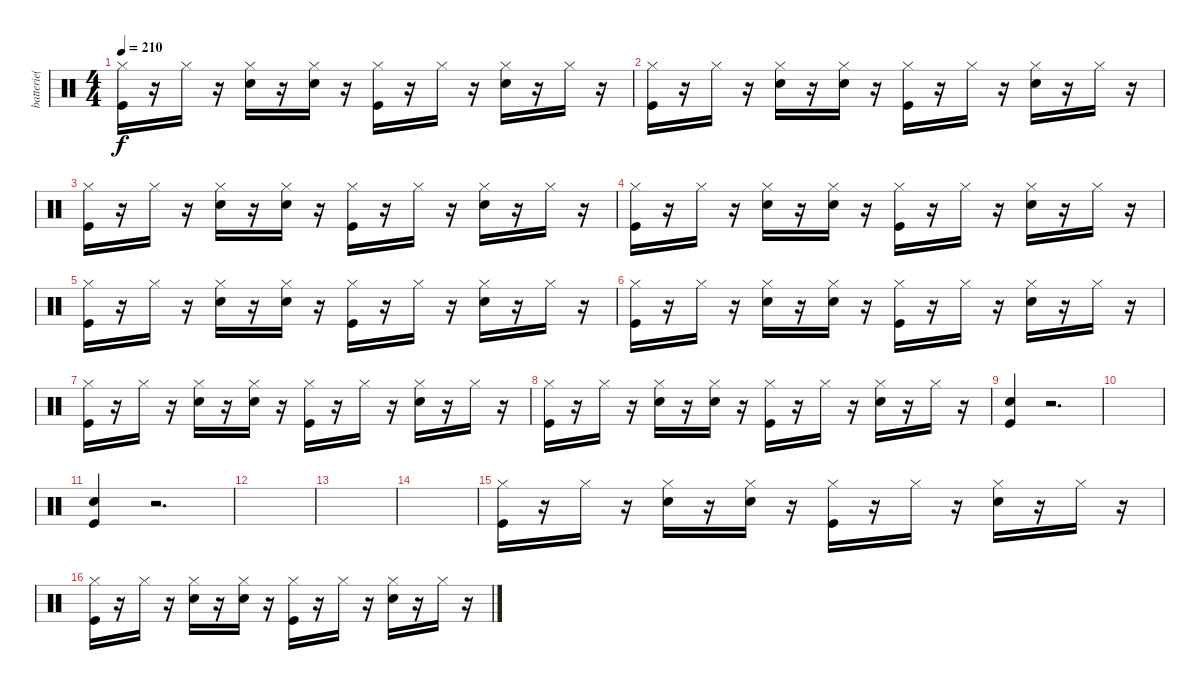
\track ("batterie( Michael Davison )" "batterie( ") {instrument percussion}
\staff {score}
\articulation defaults
\ts (4 4)
\tempo 210
\clef neutral
\ks c
("Hi-Hat (closed)" "Kick (hit)").16{dy f} r.16 "Hi-Hat (closed)".16 r.16 ("Hi-Hat (closed)" "Snare (hit) 2").16 r.16 ("Hi-Hat (closed)" "Snare (hit) 2").16 r.16 ("Hi-Hat (closed)" "Kick (hit)").16 r.16 "Hi-Hat (closed)".16 r.16 ("Hi-Hat (closed)" "Snare (hit) 2").16 r.16 "Hi-Hat (closed)".16 r.16 |
("Hi-Hat (closed)" "Kick (hit)").16 r.16 "Hi-Hat (closed)".16 r.16 ("Hi-Hat (closed)" "Snare (hit) 2").16 r.16 ("Hi-Hat (closed)" "Snare (hit) 2").16 r.16 ("Hi-Hat (closed)" "Kick (hit)").16 r.16 "Hi-Hat (closed)".16 r.16 ("Hi-Hat (closed)" "Snare (hit) 2").16 r.16 "Hi-Hat (closed)".16 r.16 |
("Hi-Hat (closed)" "Kick (hit)").16 r.16 "Hi-Hat (closed)".16 r.16 ("Hi-Hat (closed)" "Snare (hit) 2").16 r.16 ("Hi-Hat (closed)" "Snare (hit) 2").16 r.16 ("Hi-Hat (closed)" "Kick (hit)").16 r.16 "Hi-Hat (closed)".16 r.16 ("Hi-Hat (closed)" "Snare (hit) 2").16 r.16 "Hi-Hat (closed)".16 r.16 |
("Hi-Hat (closed)" "Kick (hit)").16 r.16 "Hi-Hat (closed)".16 r.16 ("Hi-Hat (closed)" "Snare (hit) 2").16 r.16 ("Hi-Hat (closed)" "Snare (hit) 2").16 r.16 ("Hi-Hat (closed)" "Kick (hit)").16 r.16 "Hi-Hat (closed)".16 r.16 ("Hi-Hat (closed)" "Snare (hit) 2").16 r.16 "Hi-Hat (closed)".16 r.16 |
("Hi-Hat (closed)" "Kick (hit)").16 r.16 "Hi-Hat (closed)".16 r.16 ("Hi-Hat (closed)" "Snare (hit) 2").16 r.16 ("Hi-Hat (closed)" "Snare (hit) 2").16 r.16 ("Hi-Hat (closed)" "Kick (hit)").16 r.16 "Hi-Hat (closed)".16 r.16 ("Hi-Hat (closed)" "Snare (hit) 2").16 r.16 "Hi-Hat (closed)".16 r.16 |
("Hi-Hat (closed)" "Kick (hit)").16 r.16 "Hi-Hat (closed)".16 r.16 ("Hi-Hat (closed)" "Snare (hit) 2").16 r.16 ("Hi-Hat (closed)" "Snare (hit) 2").16 r.16 ("Hi-Hat (closed)" "Kick (hit)").16 r.16 "Hi-Hat (closed)".16 r.16 ("Hi-Hat (closed)" "Snare (hit) 2").16 r.16 "Hi-Hat (closed)".16 r.16 |
("Hi-Hat (closed)" "Kick (hit)").16 r.16 "Hi-Hat (closed)".16 r.16 ("Hi-Hat (closed)" "Snare (hit) 2").16 r.16 ("Hi-Hat (closed)" "Snare (hit) 2").16 r.16 ("Hi-Hat (closed)" "Kick (hit)").16 r.16 "Hi-Hat (closed)".16 r.16 ("Hi-Hat (closed)" "Snare (hit) 2").16 r.16 "Hi-Hat (closed)".16 r.16 |
("Hi-Hat (closed)" "Kick (hit)").16 r.16 "Hi-Hat (closed)".16 r.16 ("Hi-Hat (closed)" "Snare (hit) 2").16 r.16 ("Hi-Hat (closed)" "Snare (hit) 2").16 r.16 ("Hi-Hat (closed)" "Kick (hit)").16 r.16 "Hi-Hat (closed)".16 r.16 ("Hi-Hat (closed)" "Snare (hit) 2").16 r.16 "Hi-Hat (closed)".16 r.16 |
("Snare (hit) 2" "Kick (hit)").4 r.2{d} |
|
("Snare (hit) 2" "Kick (hit)").4 r.2{d} |
|
|
|
("Hi-Hat (closed)" "Kick (hit)").16 r.16 "Hi-Hat (closed)".16 r.16 ("Hi-Hat (closed)" "Snare (hit) 2").16 r.16 ("Hi-Hat (closed)" "Snare (hit) 2").16 r.16 ("Hi-Hat (closed)" "Kick (hit)").16 r.16 "Hi-Hat (closed)".16 r.16 ("Hi-Hat (closed)" "Snare (hit) 2").16 r.16 "Hi-Hat (closed)".16 r.16 |
("Hi-Hat (closed)" "Kick (hit)").16 r.16 "Hi-Hat (closed)".16 r.16 ("Hi-Hat (closed)" "Snare (hit) 2").16 r.16 ("Hi-Hat (closed)" "Snare (hit) 2").16 r.16 ("Hi-Hat (closed)" "Kick (hit)").16 r.16 "Hi-Hat (closed)".16 r.16 ("Hi-Hat (closed)" "Snare (hit) 2").16 r.16 "Hi-Hat (closed)".16 r.16
